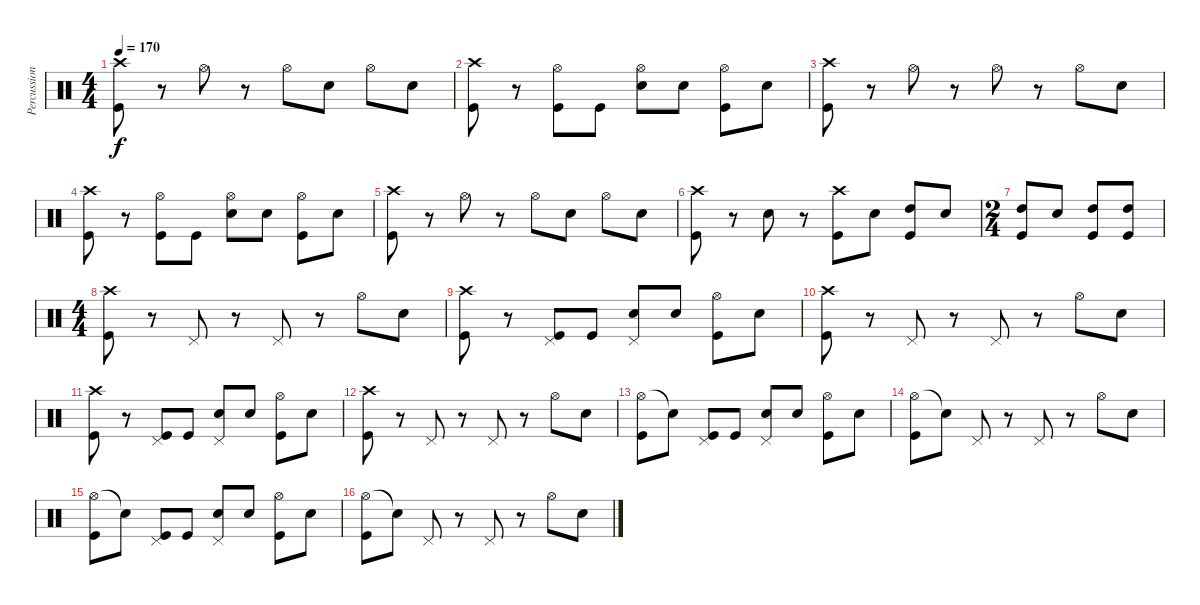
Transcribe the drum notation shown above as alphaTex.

\track ("Percussion" "Percussion") {instrument percussion}
\staff {score}
\articulation defaults
\ts (4 4)
\tempo 170
\clef neutral
\ks c
("Crash high (hit)" "Kick (hit)").8{dy f} r.8 "Hi-Hat (open)".8 r.8 "Hi-Hat (open)".8 "Snare (hit) 2".8 "Hi-Hat (open)".8 "Snare (hit) 2".8 |
("Crash high (hit)" "Kick (hit)").8 r.8 ("Hi-Hat (open)" "Kick (hit)").8 "Kick (hit)".8 ("Snare (hit) 2" "Hi-Hat (open)").8 "Snare (hit) 2".8 ("Hi-Hat (open)" "Kick (hit)").8 "Snare (hit) 2".8 |
("Crash high (hit)" "Kick (hit)").8 r.8 "Hi-Hat (open)".8 r.8 "Hi-Hat (open)".8 r.8 "Hi-Hat (open)".8 "Snare (hit) 2".8 |
("Crash high (hit)" "Kick (hit)").8 r.8 ("Hi-Hat (open)" "Kick (hit)").8 "Kick (hit)".8 ("Snare (hit) 2" "Hi-Hat (open)").8 "Snare (hit) 2".8 ("Hi-Hat (open)" "Kick (hit)").8 "Snare (hit) 2".8 |
("Crash high (hit)" "Kick (hit)").8 r.8 "Hi-Hat (open)".8 r.8 "Hi-Hat (open)".8 "Snare (hit) 2".8 "Hi-Hat (open)".8 "Snare (hit) 2".8 |
("Crash high (hit)" "Kick (hit)").8 r.8 "Snare (hit) 2".8 r.8 ("Crash high (hit)" "Kick (hit)").8 "Snare (hit) 2".8 ("High Tom (hit)" "Kick (hit)").8 "Snare (hit) 2".8 |
\ts (2 4)
("High Tom (hit)" "Kick (hit)").8 "Snare (hit) 2".8 ("High Tom (hit)" "Kick (hit)").8 ("High Tom (hit)" "Kick (hit)").8 |
\ts (4 4)
("Crash high (hit)" "Kick (hit)").8 r.8 "Pedal Hi-Hat (hit)".8 r.8 "Pedal Hi-Hat (hit)".8 r.8 "Hi-Hat (open)".8 "Snare (hit) 2".8 |
("Crash high (hit)" "Kick (hit)").8 r.8 ("Pedal Hi-Hat (hit)" "Kick (hit)").8 "Kick (hit)".8 ("Snare (hit) 2" "Pedal Hi-Hat (hit)").8 "Snare (hit) 2".8 ("Hi-Hat (open)" "Kick (hit)").8 "Snare (hit) 2".8 |
("Crash high (hit)" "Kick (hit)").8 r.8 "Pedal Hi-Hat (hit)".8 r.8 "Pedal Hi-Hat (hit)".8 r.8 "Hi-Hat (open)".8 "Snare (hit) 2".8 |
("Crash high (hit)" "Kick (hit)").8 r.8 ("Pedal Hi-Hat (hit)" "Kick (hit)").8 "Kick (hit)".8 ("Snare (hit) 2" "Pedal Hi-Hat (hit)").8 "Snare (hit) 2".8 ("Hi-Hat (open)" "Kick (hit)").8 "Snare (hit) 2".8 |
("Crash high (hit)" "Kick (hit)").8 r.8 "Pedal Hi-Hat (hit)".8 r.8 "Pedal Hi-Hat (hit)".8 r.8 "Hi-Hat (open)".8 "Snare (hit) 2".8 |
("Hi-Hat (open)" "Kick (hit)").8 "Snare (hit)"{t}.8 ("Pedal Hi-Hat (hit)" "Kick (hit)").8 "Kick (hit)".8 ("Snare (hit) 2" "Pedal Hi-Hat (hit)").8 "Snare (hit) 2".8 ("Hi-Hat (open)" "Kick (hit)").8 "Snare (hit) 2".8 |
("Hi-Hat (open)" "Kick (hit)").8 "Snare (hit)"{t}.8 "Pedal Hi-Hat (hit)".8 r.8 "Pedal Hi-Hat (hit)".8 r.8 "Hi-Hat (open)".8 "Snare (hit) 2".8 |
("Hi-Hat (open)" "Kick (hit)").8 "Snare (hit)"{t}.8 ("Pedal Hi-Hat (hit)" "Kick (hit)").8 "Kick (hit)".8 ("Snare (hit) 2" "Pedal Hi-Hat (hit)").8 "Snare (hit) 2".8 ("Hi-Hat (open)" "Kick (hit)").8 "Snare (hit) 2".8 |
("Hi-Hat (open)" "Kick (hit)").8 "Snare (hit)"{t}.8 "Pedal Hi-Hat (hit)".8 r.8 "Pedal Hi-Hat (hit)".8 r.8 "Hi-Hat (open)".8 "Snare (hit) 2".8
